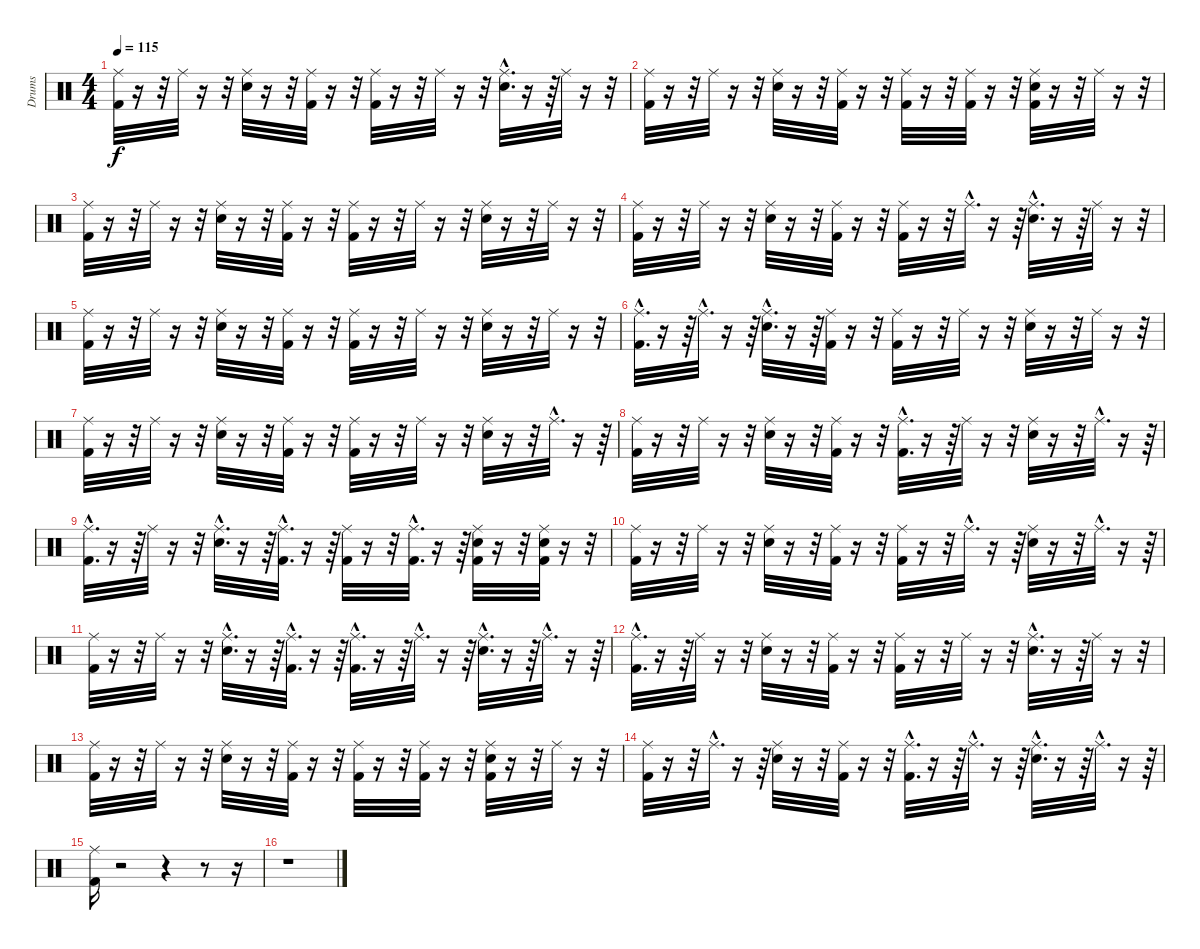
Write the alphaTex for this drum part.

\track ("Drums               " "Drums     ") {instrument percussion}
\staff {score}
\articulation defaults
\ts (4 4)
\tempo 115
\clef neutral
\ks c
("Ride (middle)" "Kick (hit) 2").32{dy f} r.16 r.32 "Ride (middle)".32 r.16 r.32 ("Ride (middle)" "Snare (hit) 2").32 r.16 r.32 ("Ride (middle)" "Kick (hit) 2").32 r.16 r.32 ("Ride (middle)" "Kick (hit) 2").32 r.16 r.32 "Ride (middle)".32 r.16 r.32 ("Ride (middle)"{hac} "Snare (hit) 2"{hac}).32{d} r.16 r.64 "Ride (middle)".32 r.16 r.32 |
("Ride (middle)" "Kick (hit) 2").32 r.16 r.32 "Ride (middle)".32 r.16 r.32 ("Ride (middle)" "Snare (hit) 2").32 r.16 r.32 ("Ride (middle)" "Kick (hit) 2").32 r.16 r.32 ("Ride (middle)" "Kick (hit) 2").32 r.16 r.32 ("Ride (middle)" "Kick (hit) 2").32 r.16 r.32 ("Ride (middle)" "Kick (hit) 2" "Snare (hit) 2").32 r.16 r.32 "Ride (middle)".32 r.16 r.32 |
("Ride (middle)" "Kick (hit) 2").32 r.16 r.32 "Ride (middle)".32 r.16 r.32 ("Ride (middle)" "Snare (hit) 2").32 r.16 r.32 ("Ride (middle)" "Kick (hit) 2").32 r.16 r.32 ("Ride (middle)" "Kick (hit) 2").32 r.16 r.32 "Ride (middle)".32 r.16 r.32 ("Ride (middle)" "Snare (hit) 2").32 r.16 r.32 "Ride (middle)".32 r.16 r.32 |
("Ride (middle)" "Kick (hit) 2").32 r.16 r.32 "Ride (middle)".32 r.16 r.32 ("Ride (middle)" "Snare (hit) 2").32 r.16 r.32 ("Ride (middle)" "Kick (hit) 2").32 r.16 r.32 ("Ride (middle)" "Kick (hit) 2").32 r.16 r.32 "Ride (middle)"{hac}.32{d} r.16 r.64 ("Ride (middle)"{hac} "Snare (hit) 2"{hac}).32{d} r.16 r.64 "Ride (middle)".32 r.16 r.32 |
("Ride (middle)" "Kick (hit) 2").32 r.16 r.32 "Ride (middle)".32 r.16 r.32 ("Ride (middle)" "Snare (hit) 2").32 r.16 r.32 ("Ride (middle)" "Kick (hit) 2").32 r.16 r.32 ("Ride (middle)" "Kick (hit) 2").32 r.16 r.32 "Ride (middle)".32 r.16 r.32 ("Ride (middle)" "Snare (hit) 2").32 r.16 r.32 "Ride (middle)".32 r.16 r.32 |
("Ride (middle)"{hac} "Kick (hit) 2"{hac}).32{d} r.16 r.64 "Ride (middle)"{hac}.32{d} r.16 r.64 ("Ride (middle)"{hac} "Snare (hit) 2"{hac}).32{d} r.16 r.64 ("Ride (middle)" "Kick (hit) 2").32 r.16 r.32 ("Ride (middle)" "Kick (hit) 2").32 r.16 r.32 "Ride (middle)".32 r.16 r.32 ("Ride (middle)" "Snare (hit) 2").32 r.16 r.32 "Ride (middle)".32 r.16 r.32 |
("Ride (middle)" "Kick (hit) 2").32 r.16 r.32 "Ride (middle)".32 r.16 r.32 ("Ride (middle)" "Snare (hit) 2").32 r.16 r.32 ("Ride (middle)" "Kick (hit) 2").32 r.16 r.32 ("Ride (middle)" "Kick (hit) 2").32 r.16 r.32 "Ride (middle)".32 r.16 r.32 ("Ride (middle)" "Snare (hit) 2").32 r.16 r.32 "Ride (middle)"{hac}.32{d} r.16 r.64 |
("Ride (middle)" "Kick (hit) 2").32 r.16 r.32 "Ride (middle)".32 r.16 r.32 ("Ride (middle)" "Snare (hit) 2").32 r.16 r.32 ("Ride (middle)" "Kick (hit) 2").32 r.16 r.32 ("Ride (middle)"{hac} "Kick (hit) 2"{hac}).32{d} r.16 r.64 "Ride (middle)".32 r.16 r.32 ("Ride (middle)" "Snare (hit) 2").32 r.16 r.32 "Ride (middle)"{hac}.32{d} r.16 r.64 |
("Ride (middle)"{hac} "Kick (hit) 2"{hac}).32{d} r.16 r.64 "Ride (middle)".32 r.16 r.32 ("Ride (middle)"{hac} "Snare (hit) 2"{hac}).32{d} r.16 r.64 ("Ride (middle)"{hac} "Kick (hit) 2"{hac}).32{d} r.16 r.64 ("Ride (middle)" "Kick (hit) 2").32 r.16 r.32 ("Ride (middle)"{hac} "Kick (hit) 2"{hac}).32{d} r.16 r.64 ("Ride (middle)" "Snare (hit) 2" "Kick (hit) 2").32 r.16 r.32 ("Ride (middle)" "Snare (hit) 2" "Kick (hit) 2").32 r.16 r.32 |
("Ride (middle)" "Kick (hit) 2").32 r.16 r.32 "Ride (middle)".32 r.16 r.32 ("Ride (middle)" "Snare (hit) 2").32 r.16 r.32 ("Ride (middle)" "Kick (hit) 2").32 r.16 r.32 ("Ride (middle)" "Kick (hit) 2").32 r.16 r.32 "Ride (middle)"{hac}.32{d} r.16 r.64 ("Ride (middle)" "Snare (hit) 2").32 r.16 r.32 "Ride (middle)"{hac}.32{d} r.16 r.64 |
("Ride (middle)" "Kick (hit) 2").32 r.16 r.32 "Ride (middle)".32 r.16 r.32 ("Ride (middle)"{hac} "Snare (hit) 2"{hac}).32{d} r.16 r.64 ("Ride (middle)"{hac} "Kick (hit) 2"{hac}).32{d} r.16 r.64 ("Ride (middle)"{hac} "Kick (hit) 2"{hac}).32{d} r.16 r.64 "Ride (middle)"{hac}.32{d} r.16 r.64 ("Ride (middle)"{hac} "Snare (hit) 2"{hac}).32{d} r.16 r.64 "Ride (middle)"{hac}.32{d} r.16 r.64 |
("Ride (middle)"{hac} "Kick (hit) 2"{hac}).32{d} r.16 r.64 "Ride (middle)".32 r.16 r.32 ("Ride (middle)" "Snare (hit) 2").32 r.16 r.32 ("Ride (middle)" "Kick (hit) 2").32 r.16 r.32 ("Ride (middle)" "Kick (hit) 2").32 r.16 r.32 "Ride (middle)".32 r.16 r.32 ("Ride (middle)"{hac} "Snare (hit) 2"{hac}).32{d} r.16 r.64 "Ride (middle)".32 r.16 r.32 |
("Ride (middle)" "Kick (hit) 2").32 r.16 r.32 "Ride (middle)".32 r.16 r.32 ("Ride (middle)" "Snare (hit) 2").32 r.16 r.32 ("Ride (middle)" "Kick (hit) 2").32 r.16 r.32 ("Ride (middle)" "Kick (hit) 2").32 r.16 r.32 ("Ride (middle)" "Kick (hit) 2").32 r.16 r.32 ("Ride (middle)" "Kick (hit) 2" "Snare (hit) 2").32 r.16 r.32 "Ride (middle)".32 r.16 r.32 |
("Ride (middle)" "Kick (hit) 2").32 r.16 r.32 "Ride (middle)"{hac}.32{d} r.16 r.64 ("Ride (middle)" "Snare (hit) 2").32 r.16 r.32 ("Ride (middle)" "Kick (hit) 2").32 r.16 r.32 ("Ride (middle)"{hac} "Kick (hit) 2"{hac}).32{d} r.16 r.64 "Ride (middle)"{hac}.32{d} r.16 r.64 ("Ride (middle)"{hac} "Snare (hit) 2"{hac}).32{d} r.16 r.64 "Ride (middle)"{hac}.32{d} r.16 r.64 |
("Ride (middle)" "Kick (hit) 2").16 r.2 r.4 r.8 r.16 |
r.1
